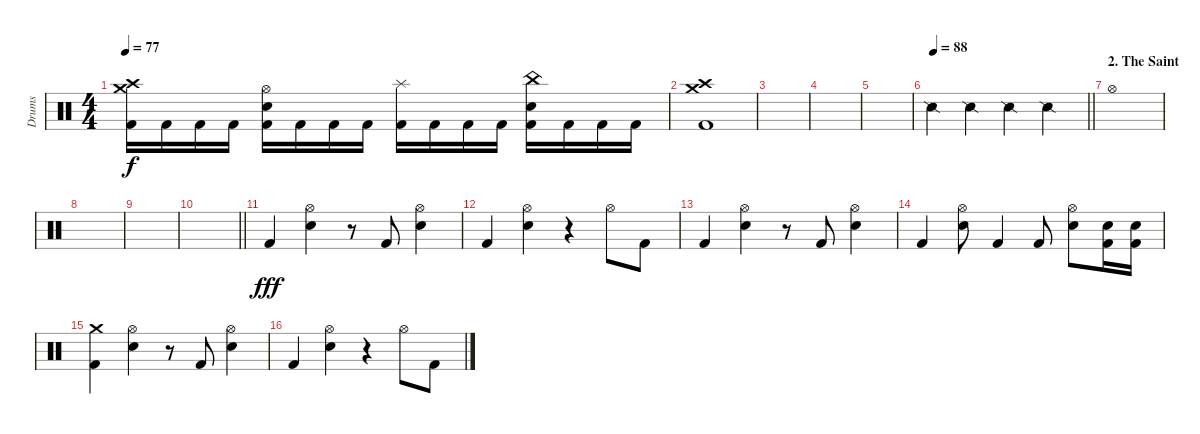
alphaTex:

\track ("Drums" "Drums") {instrument percussion}
\staff {score}
\articulation defaults
\ts (4 4)
\tempo 77
\clef neutral
\ks c
("Kick (hit) 2" "Crash high (hit)" "Crash medium (hit)").16{dy f} "Kick (hit) 2".16 "Kick (hit) 2".16 "Kick (hit) 2".16 ("Kick (hit) 2" "Electric Snare (hit)" "Hi-Hat (open)").16 "Kick (hit) 2".16 "Kick (hit) 2".16 "Kick (hit) 2".16 ("Kick (hit) 2" "Splash (hit)").16 "Kick (hit) 2".16 "Kick (hit) 2".16 "Kick (hit) 2".16 ("Kick (hit) 2" "Electric Snare (hit)" "China (hit)").16 "Kick (hit) 2".16 "Kick (hit) 2".16 "Kick (hit) 2".16 |
("Kick (hit) 2" "Crash high (hit)" "Crash medium (hit)").1 |
|
|
|
\tempo 88
\barLineRight lightlight "Snare (side stick) 2".4 "Snare (side stick) 2".4 "Snare (side stick) 2".4 "Snare (side stick) 2".4
|
\section ("" "2. The Saint")
"Hi-Hat (open)".1 |
|
|
\barLineRight lightlight
|
"Kick (hit) 2".4{dy fff} ("Electric Snare (hit)" "Hi-Hat (open)").4 r.8 "Kick (hit) 2".8 ("Electric Snare (hit)" "Hi-Hat (open)").4 |
"Kick (hit) 2".4 ("Electric Snare (hit)" "Hi-Hat (open)").4 r.4 "Hi-Hat (open)".8 "Kick (hit) 2".8 |
"Kick (hit) 2".4 ("Electric Snare (hit)" "Hi-Hat (open)").4 r.8 "Kick (hit) 2".8 ("Electric Snare (hit)" "Hi-Hat (open)").4 |
"Kick (hit) 2".4 ("Electric Snare (hit)" "Hi-Hat (open)").8 "Kick (hit) 2".4 "Kick (hit) 2".8 ("Electric Snare (hit)" "Hi-Hat (open)").8 ("Kick (hit) 2" "Electric Snare (hit)").16 ("Kick (hit) 2" "Electric Snare (hit)").16 |
("Kick (hit) 2" "Crash medium (hit)").4 ("Electric Snare (hit)" "Hi-Hat (open)").4 r.8 "Kick (hit) 2".8 ("Electric Snare (hit)" "Hi-Hat (open)").4 |
"Kick (hit) 2".4 ("Electric Snare (hit)" "Hi-Hat (open)").4 r.4 "Hi-Hat (open)".8 "Kick (hit) 2".8
